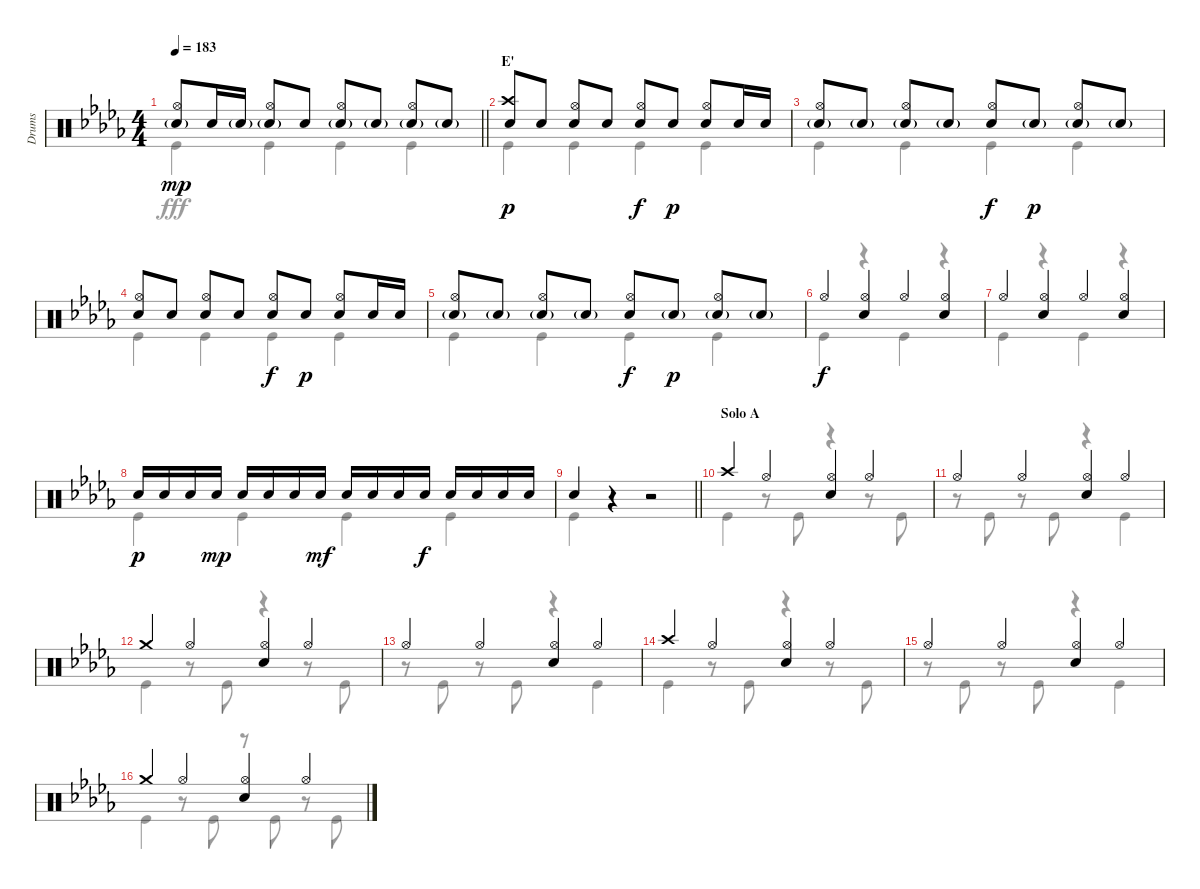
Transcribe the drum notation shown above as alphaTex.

\track ("Drums" "Drums") {instrument percussion}
\staff {score}
\articulation defaults
\voice
\ts (4 4)
\tempo 183
\clef neutral
\barLineRight lightlight
\ks db
("Hi-Hat (open)" "Snare (hit) 2"{g}).8{dy mp} "Snare (hit) 2".16 "Snare (hit) 2"{g}.16 ("Hi-Hat (open)" "Snare (hit) 2"{g}).8 "Snare (hit) 2".8 ("Hi-Hat (open)" "Snare (hit) 2"{g}).8 "Snare (hit) 2"{g}.8 ("Hi-Hat (open)" "Snare (hit) 2"{g}).8 "Snare (hit) 2"{g}.8 |
\section ("" "E'")
("Crash high (hit)" "Snare (hit) 2").8{dy p} "Snare (hit) 2".8 ("Hi-Hat (open)" "Snare (hit) 2").8 "Snare (hit) 2".8 ("Hi-Hat (open)" "Snare (hit) 2").8{dy f} "Snare (hit) 2".8{dy p} ("Hi-Hat (open)" "Snare (hit) 2").8 "Snare (hit) 2".16 "Snare (hit) 2".16 |
("Hi-Hat (open)" "Snare (hit) 2"{g}).8 "Snare (hit) 2"{g}.8 ("Hi-Hat (open)" "Snare (hit) 2"{g}).8 "Snare (hit) 2"{g}.8 ("Hi-Hat (open)" "Snare (hit) 2").8{dy f} "Snare (hit) 2"{g}.8{dy p} ("Hi-Hat (open)" "Snare (hit) 2"{g}).8 "Snare (hit) 2"{g}.8 |
("Hi-Hat (open)" "Snare (hit) 2").8 "Snare (hit) 2".8 ("Hi-Hat (open)" "Snare (hit) 2").8 "Snare (hit) 2".8 ("Hi-Hat (open)" "Snare (hit) 2").8{dy f} "Snare (hit) 2".8{dy p} ("Hi-Hat (open)" "Snare (hit) 2").8 "Snare (hit) 2".16 "Snare (hit) 2".16 |
("Hi-Hat (open)" "Snare (hit) 2"{g}).8 "Snare (hit) 2"{g}.8 ("Hi-Hat (open)" "Snare (hit) 2"{g}).8 "Snare (hit) 2"{g}.8 ("Hi-Hat (open)" "Snare (hit) 2").8{dy f} "Snare (hit) 2"{g}.8{dy p} ("Hi-Hat (open)" "Snare (hit) 2"{g}).8 "Snare (hit) 2"{g}.8 |
"Hi-Hat (open)".4{dy f} ("Hi-Hat (open)" "Snare (hit) 2").4 "Hi-Hat (open)".4 ("Hi-Hat (open)" "Snare (hit) 2").4 |
"Hi-Hat (open)".4 ("Hi-Hat (open)" "Snare (hit) 2").4 "Hi-Hat (open)".4 ("Hi-Hat (open)" "Snare (hit) 2").4 |
"Snare (hit) 2".16{dy p} "Snare (hit) 2".16 "Snare (hit) 2".16 "Snare (hit) 2".16{dy mp} "Snare (hit) 2".16 "Snare (hit) 2".16 "Snare (hit) 2".16 "Snare (hit) 2".16{dy mf} "Snare (hit) 2".16 "Snare (hit) 2".16 "Snare (hit) 2".16 "Snare (hit) 2".16{dy f} "Snare (hit) 2".16 "Snare (hit) 2".16 "Snare (hit) 2".16 "Snare (hit) 2".16 |
\barLineRight lightlight "Snare (hit) 2".4
r.4 r.2 |
\section ("" "Solo A")
"Crash high (hit)".4 "Hi-Hat (open)".4 ("Hi-Hat (open)" "Snare (hit) 2").4 "Hi-Hat (open)".4 |
"Hi-Hat (open)".4 "Hi-Hat (open)".4 ("Hi-Hat (open)" "Snare (hit) 2").4 "Hi-Hat (open)".4 |
"Crash medium (hit)".4 "Hi-Hat (open)".4 ("Hi-Hat (open)" "Snare (hit) 2").4 "Hi-Hat (open)".4 |
"Hi-Hat (open)".4 "Hi-Hat (open)".4 ("Hi-Hat (open)" "Snare (hit) 2").4 "Hi-Hat (open)".4 |
"Crash high (hit)".4 "Hi-Hat (open)".4 ("Hi-Hat (open)" "Snare (hit) 2").4 "Hi-Hat (open)".4 |
"Hi-Hat (open)".4 "Hi-Hat (open)".4 ("Hi-Hat (open)" "Snare (hit) 2").4 "Hi-Hat (open)".4 |
"Crash medium (hit)".4 "Hi-Hat (open)".4 ("Hi-Hat (open)" "Snare (hit) 2").4 "Hi-Hat (open)".4
\voice
\clef neutral
\ottava regular
\simile none
\barLineRight lightlight
\ks db "Kick (hit)".4{dy fff} "Kick (hit)".4 "Kick (hit)".4 "Kick (hit)".4
|
"Kick (hit)".4 "Kick (hit)".4 "Kick (hit)".4 "Kick (hit)".4 |
"Kick (hit)".4 "Kick (hit)".4 "Kick (hit)".4 "Kick (hit)".4 |
"Kick (hit)".4 "Kick (hit)".4 "Kick (hit)".4 "Kick (hit)".4 |
"Kick (hit)".4 "Kick (hit)".4 "Kick (hit)".4 "Kick (hit)".4 |
"Kick (hit)".4 r.4 "Kick (hit)".4 r.4 |
"Kick (hit)".4 r.4 "Kick (hit)".4 r.4 |
"Kick (hit)".4 "Kick (hit)".4 "Kick (hit)".4 "Kick (hit)".4 |
\barLineRight lightlight "Kick (hit)".4
r.4 r.2 |
"Kick (hit)".4 r.8 "Kick (hit)".8 r.4 r.8 "Kick (hit)".8 |
r.8 "Kick (hit)".8 r.8 "Kick (hit)".8 r.4 "Kick (hit)".4 |
"Kick (hit)".4 r.8 "Kick (hit)".8 r.4 r.8 "Kick (hit)".8 |
r.8 "Kick (hit)".8 r.8 "Kick (hit)".8 r.4 "Kick (hit)".4 |
"Kick (hit)".4 r.8 "Kick (hit)".8 r.4 r.8 "Kick (hit)".8 |
r.8 "Kick (hit)".8 r.8 "Kick (hit)".8 r.4 "Kick (hit)".4 |
"Kick (hit)".4 r.8 "Kick (hit)".8 r.8 "Kick (hit)".8 r.8 "Kick (hit)".8
